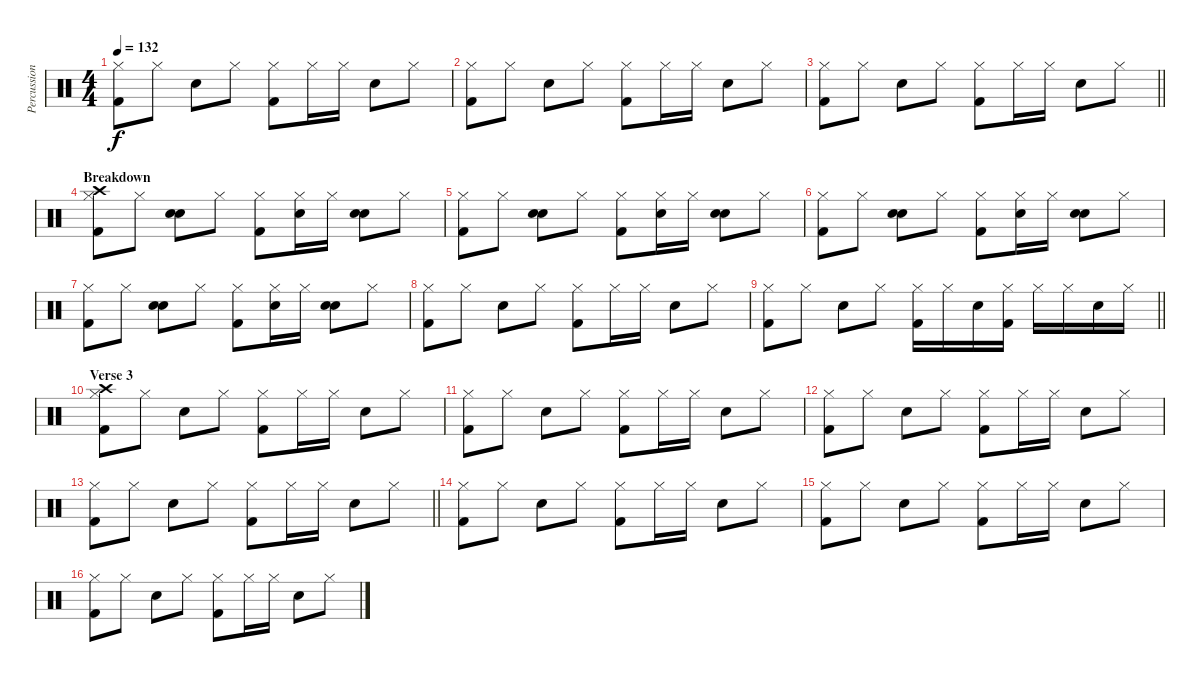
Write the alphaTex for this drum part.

\track ("Percussion" "Percussion") {instrument percussion}
\staff {score}
\articulation defaults
\ts (4 4)
\tempo 132
\clef neutral
\ks c
("Hi-Hat (closed)" "Kick (hit) 2").8{dy f} "Hi-Hat (closed)".8 "Snare (hit) 2".8 "Hi-Hat (closed)".8 ("Hi-Hat (closed)" "Kick (hit) 2").8 "Hi-Hat (closed)".16 "Hi-Hat (closed)".16 "Snare (hit) 2".8 "Hi-Hat (closed)".8 |
("Hi-Hat (closed)" "Kick (hit) 2").8 "Hi-Hat (closed)".8 "Snare (hit) 2".8 "Hi-Hat (closed)".8 ("Hi-Hat (closed)" "Kick (hit) 2").8 "Hi-Hat (closed)".16 "Hi-Hat (closed)".16 "Snare (hit) 2".8 "Hi-Hat (closed)".8 |
\barLineRight lightlight
("Hi-Hat (closed)" "Kick (hit) 2").8 "Hi-Hat (closed)".8 "Snare (hit) 2".8 "Hi-Hat (closed)".8 ("Hi-Hat (closed)" "Kick (hit) 2").8 "Hi-Hat (closed)".16 "Hi-Hat (closed)".16 "Snare (hit) 2".8 "Hi-Hat (closed)".8 |
\section ("" "Breakdown")
("Crash high (hit)" "Hi-Hat (closed)" "Kick (hit) 2").8 "Hi-Hat (closed)".8 ("Snare (hit) 2" "Hand Clap (hit)").8 "Hi-Hat (closed)".8 ("Hi-Hat (closed)" "Kick (hit) 2").8 ("Hi-Hat (closed)" "Hand Clap (hit)").16 "Hi-Hat (closed)".16 ("Snare (hit) 2" "Hand Clap (hit)").8 "Hi-Hat (closed)".8 |
("Hi-Hat (closed)" "Kick (hit) 2").8 "Hi-Hat (closed)".8 ("Snare (hit) 2" "Hand Clap (hit)").8 "Hi-Hat (closed)".8 ("Hi-Hat (closed)" "Kick (hit) 2").8 ("Hi-Hat (closed)" "Hand Clap (hit)").16 "Hi-Hat (closed)".16 ("Snare (hit) 2" "Hand Clap (hit)").8 "Hi-Hat (closed)".8 |
("Hi-Hat (closed)" "Kick (hit) 2").8 "Hi-Hat (closed)".8 ("Snare (hit) 2" "Hand Clap (hit)").8 "Hi-Hat (closed)".8 ("Hi-Hat (closed)" "Kick (hit) 2").8 ("Hi-Hat (closed)" "Hand Clap (hit)").16 "Hi-Hat (closed)".16 ("Snare (hit) 2" "Hand Clap (hit)").8 "Hi-Hat (closed)".8 |
("Hi-Hat (closed)" "Kick (hit) 2").8 "Hi-Hat (closed)".8 ("Snare (hit) 2" "Hand Clap (hit)").8 "Hi-Hat (closed)".8 ("Hi-Hat (closed)" "Kick (hit) 2").8 ("Hi-Hat (closed)" "Hand Clap (hit)").16 "Hi-Hat (closed)".16 ("Snare (hit) 2" "Hand Clap (hit)").8 "Hi-Hat (closed)".8 |
("Hi-Hat (closed)" "Kick (hit) 2").8 "Hi-Hat (closed)".8 "Snare (hit) 2".8 "Hi-Hat (closed)".8 ("Hi-Hat (closed)" "Kick (hit) 2").8 "Hi-Hat (closed)".16 "Hi-Hat (closed)".16 "Snare (hit) 2".8 "Hi-Hat (closed)".8 |
\barLineRight lightlight
("Hi-Hat (closed)" "Kick (hit) 2").8 "Hi-Hat (closed)".8 "Snare (hit) 2".8 "Hi-Hat (closed)".8 ("Hi-Hat (closed)" "Kick (hit) 2").16 "Hi-Hat (closed)".16 "Snare (hit) 2".16 ("Hi-Hat (closed)" "Kick (hit) 2").16 "Hi-Hat (closed)".16 "Hi-Hat (closed)".16 "Snare (hit) 2".16 "Hi-Hat (closed)".16 |
\section ("" "Verse 3")
("Crash high (hit)" "Hi-Hat (closed)" "Kick (hit) 2").8 "Hi-Hat (closed)".8 "Snare (hit) 2".8 "Hi-Hat (closed)".8 ("Hi-Hat (closed)" "Kick (hit) 2").8 "Hi-Hat (closed)".16 "Hi-Hat (closed)".16 "Snare (hit) 2".8 "Hi-Hat (closed)".8 |
("Hi-Hat (closed)" "Kick (hit) 2").8 "Hi-Hat (closed)".8 "Snare (hit) 2".8 "Hi-Hat (closed)".8 ("Hi-Hat (closed)" "Kick (hit) 2").8 "Hi-Hat (closed)".16 "Hi-Hat (closed)".16 "Snare (hit) 2".8 "Hi-Hat (closed)".8 |
("Hi-Hat (closed)" "Kick (hit) 2").8 "Hi-Hat (closed)".8 "Snare (hit) 2".8 "Hi-Hat (closed)".8 ("Hi-Hat (closed)" "Kick (hit) 2").8 "Hi-Hat (closed)".16 "Hi-Hat (closed)".16 "Snare (hit) 2".8 "Hi-Hat (closed)".8 |
\barLineRight lightlight
("Hi-Hat (closed)" "Kick (hit) 2").8 "Hi-Hat (closed)".8 "Snare (hit) 2".8 "Hi-Hat (closed)".8 ("Hi-Hat (closed)" "Kick (hit) 2").8 "Hi-Hat (closed)".16 "Hi-Hat (closed)".16 "Snare (hit) 2".8 "Hi-Hat (closed)".8 |
("Hi-Hat (closed)" "Kick (hit) 2").8 "Hi-Hat (closed)".8 "Snare (hit) 2".8 "Hi-Hat (closed)".8 ("Hi-Hat (closed)" "Kick (hit) 2").8 "Hi-Hat (closed)".16 "Hi-Hat (closed)".16 "Snare (hit) 2".8 "Hi-Hat (closed)".8 |
("Hi-Hat (closed)" "Kick (hit) 2").8 "Hi-Hat (closed)".8 "Snare (hit) 2".8 "Hi-Hat (closed)".8 ("Hi-Hat (closed)" "Kick (hit) 2").8 "Hi-Hat (closed)".16 "Hi-Hat (closed)".16 "Snare (hit) 2".8 "Hi-Hat (closed)".8 |
("Hi-Hat (closed)" "Kick (hit) 2").8 "Hi-Hat (closed)".8 "Snare (hit) 2".8 "Hi-Hat (closed)".8 ("Hi-Hat (closed)" "Kick (hit) 2").8 "Hi-Hat (closed)".16 "Hi-Hat (closed)".16 "Snare (hit) 2".8 "Hi-Hat (closed)".8
